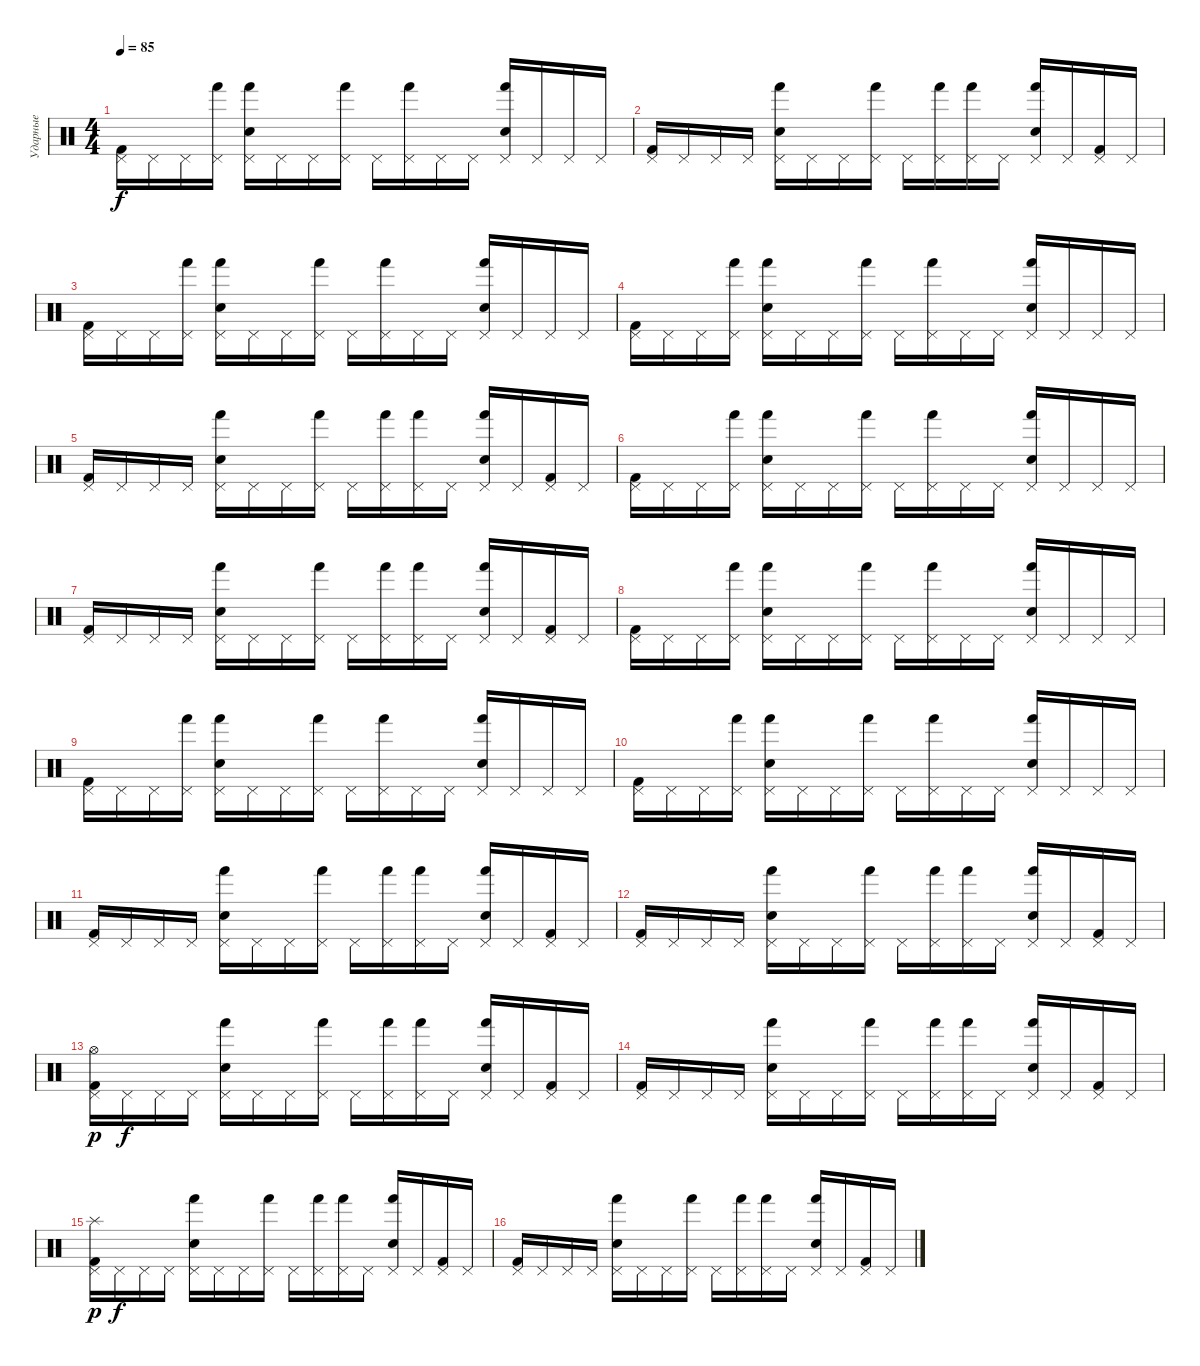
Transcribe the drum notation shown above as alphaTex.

\track ("Ударные" "Ударные") {instrument percussion}
\staff {score}
\articulation defaults
\ts (4 4)
\tempo 85
\clef neutral
\ks c
("Pedal Hi-Hat (hit)" "Kick (hit) 2").16{dy f} "Pedal Hi-Hat (hit)".16 "Pedal Hi-Hat (hit)".16 ("Pedal Hi-Hat (hit)" "Hand (hit)").16 ("Pedal Hi-Hat (hit)" "Electric Snare (hit)" "Hand (hit)").16 "Pedal Hi-Hat (hit)".16 "Pedal Hi-Hat (hit)".16 ("Pedal Hi-Hat (hit)" "Hand (hit)").16 "Pedal Hi-Hat (hit)".16 ("Pedal Hi-Hat (hit)" "Hand (hit)").16 "Pedal Hi-Hat (hit)".16 "Pedal Hi-Hat (hit)".16 ("Pedal Hi-Hat (hit)" "Electric Snare (hit)" "Hand (hit)").16 "Pedal Hi-Hat (hit)".16 "Pedal Hi-Hat (hit)".16 "Pedal Hi-Hat (hit)".16 |
("Pedal Hi-Hat (hit)" "Kick (hit) 2").16 "Pedal Hi-Hat (hit)".16 "Pedal Hi-Hat (hit)".16 "Pedal Hi-Hat (hit)".16 ("Pedal Hi-Hat (hit)" "Electric Snare (hit)" "Hand (hit)").16 "Pedal Hi-Hat (hit)".16 "Pedal Hi-Hat (hit)".16 ("Pedal Hi-Hat (hit)" "Hand (hit)").16 "Pedal Hi-Hat (hit)".16 ("Pedal Hi-Hat (hit)" "Hand (hit)").16 ("Pedal Hi-Hat (hit)" "Hand (hit)").16 "Pedal Hi-Hat (hit)".16 ("Pedal Hi-Hat (hit)" "Electric Snare (hit)" "Hand (hit)").16 "Pedal Hi-Hat (hit)".16 ("Pedal Hi-Hat (hit)" "Kick (hit) 2").16 "Pedal Hi-Hat (hit)".16 |
("Pedal Hi-Hat (hit)" "Kick (hit) 2").16 "Pedal Hi-Hat (hit)".16 "Pedal Hi-Hat (hit)".16 ("Pedal Hi-Hat (hit)" "Hand (hit)").16 ("Pedal Hi-Hat (hit)" "Electric Snare (hit)" "Hand (hit)").16 "Pedal Hi-Hat (hit)".16 "Pedal Hi-Hat (hit)".16 ("Pedal Hi-Hat (hit)" "Hand (hit)").16 "Pedal Hi-Hat (hit)".16 ("Pedal Hi-Hat (hit)" "Hand (hit)").16 "Pedal Hi-Hat (hit)".16 "Pedal Hi-Hat (hit)".16 ("Pedal Hi-Hat (hit)" "Electric Snare (hit)" "Hand (hit)").16 "Pedal Hi-Hat (hit)".16 "Pedal Hi-Hat (hit)".16 "Pedal Hi-Hat (hit)".16 |
("Pedal Hi-Hat (hit)" "Kick (hit) 2").16 "Pedal Hi-Hat (hit)".16 "Pedal Hi-Hat (hit)".16 ("Pedal Hi-Hat (hit)" "Hand (hit)").16 ("Pedal Hi-Hat (hit)" "Electric Snare (hit)" "Hand (hit)").16 "Pedal Hi-Hat (hit)".16 "Pedal Hi-Hat (hit)".16 ("Pedal Hi-Hat (hit)" "Hand (hit)").16 "Pedal Hi-Hat (hit)".16 ("Pedal Hi-Hat (hit)" "Hand (hit)").16 "Pedal Hi-Hat (hit)".16 "Pedal Hi-Hat (hit)".16 ("Pedal Hi-Hat (hit)" "Electric Snare (hit)" "Hand (hit)").16 "Pedal Hi-Hat (hit)".16 "Pedal Hi-Hat (hit)".16 "Pedal Hi-Hat (hit)".16 |
("Pedal Hi-Hat (hit)" "Kick (hit) 2").16 "Pedal Hi-Hat (hit)".16 "Pedal Hi-Hat (hit)".16 "Pedal Hi-Hat (hit)".16 ("Pedal Hi-Hat (hit)" "Electric Snare (hit)" "Hand (hit)").16 "Pedal Hi-Hat (hit)".16 "Pedal Hi-Hat (hit)".16 ("Pedal Hi-Hat (hit)" "Hand (hit)").16 "Pedal Hi-Hat (hit)".16 ("Pedal Hi-Hat (hit)" "Hand (hit)").16 ("Pedal Hi-Hat (hit)" "Hand (hit)").16 "Pedal Hi-Hat (hit)".16 ("Pedal Hi-Hat (hit)" "Electric Snare (hit)" "Hand (hit)").16 "Pedal Hi-Hat (hit)".16 ("Pedal Hi-Hat (hit)" "Kick (hit) 2").16 "Pedal Hi-Hat (hit)".16 |
("Pedal Hi-Hat (hit)" "Kick (hit) 2").16 "Pedal Hi-Hat (hit)".16 "Pedal Hi-Hat (hit)".16 ("Pedal Hi-Hat (hit)" "Hand (hit)").16 ("Pedal Hi-Hat (hit)" "Electric Snare (hit)" "Hand (hit)").16 "Pedal Hi-Hat (hit)".16 "Pedal Hi-Hat (hit)".16 ("Pedal Hi-Hat (hit)" "Hand (hit)").16 "Pedal Hi-Hat (hit)".16 ("Pedal Hi-Hat (hit)" "Hand (hit)").16 "Pedal Hi-Hat (hit)".16 "Pedal Hi-Hat (hit)".16 ("Pedal Hi-Hat (hit)" "Electric Snare (hit)" "Hand (hit)").16 "Pedal Hi-Hat (hit)".16 "Pedal Hi-Hat (hit)".16 "Pedal Hi-Hat (hit)".16 |
("Pedal Hi-Hat (hit)" "Kick (hit) 2").16 "Pedal Hi-Hat (hit)".16 "Pedal Hi-Hat (hit)".16 "Pedal Hi-Hat (hit)".16 ("Pedal Hi-Hat (hit)" "Electric Snare (hit)" "Hand (hit)").16 "Pedal Hi-Hat (hit)".16 "Pedal Hi-Hat (hit)".16 ("Pedal Hi-Hat (hit)" "Hand (hit)").16 "Pedal Hi-Hat (hit)".16 ("Pedal Hi-Hat (hit)" "Hand (hit)").16 ("Pedal Hi-Hat (hit)" "Hand (hit)").16 "Pedal Hi-Hat (hit)".16 ("Pedal Hi-Hat (hit)" "Electric Snare (hit)" "Hand (hit)").16 "Pedal Hi-Hat (hit)".16 ("Pedal Hi-Hat (hit)" "Kick (hit) 2").16 "Pedal Hi-Hat (hit)".16 |
("Pedal Hi-Hat (hit)" "Kick (hit) 2").16 "Pedal Hi-Hat (hit)".16 "Pedal Hi-Hat (hit)".16 ("Pedal Hi-Hat (hit)" "Hand (hit)").16 ("Pedal Hi-Hat (hit)" "Electric Snare (hit)" "Hand (hit)").16 "Pedal Hi-Hat (hit)".16 "Pedal Hi-Hat (hit)".16 ("Pedal Hi-Hat (hit)" "Hand (hit)").16 "Pedal Hi-Hat (hit)".16 ("Pedal Hi-Hat (hit)" "Hand (hit)").16 "Pedal Hi-Hat (hit)".16 "Pedal Hi-Hat (hit)".16 ("Pedal Hi-Hat (hit)" "Electric Snare (hit)" "Hand (hit)").16 "Pedal Hi-Hat (hit)".16 "Pedal Hi-Hat (hit)".16 "Pedal Hi-Hat (hit)".16 |
("Pedal Hi-Hat (hit)" "Kick (hit) 2").16 "Pedal Hi-Hat (hit)".16 "Pedal Hi-Hat (hit)".16 ("Pedal Hi-Hat (hit)" "Hand (hit)").16 ("Pedal Hi-Hat (hit)" "Electric Snare (hit)" "Hand (hit)").16 "Pedal Hi-Hat (hit)".16 "Pedal Hi-Hat (hit)".16 ("Pedal Hi-Hat (hit)" "Hand (hit)").16 "Pedal Hi-Hat (hit)".16 ("Pedal Hi-Hat (hit)" "Hand (hit)").16 "Pedal Hi-Hat (hit)".16 "Pedal Hi-Hat (hit)".16 ("Pedal Hi-Hat (hit)" "Electric Snare (hit)" "Hand (hit)").16 "Pedal Hi-Hat (hit)".16 "Pedal Hi-Hat (hit)".16 "Pedal Hi-Hat (hit)".16 |
("Pedal Hi-Hat (hit)" "Kick (hit) 2").16 "Pedal Hi-Hat (hit)".16 "Pedal Hi-Hat (hit)".16 ("Pedal Hi-Hat (hit)" "Hand (hit)").16 ("Pedal Hi-Hat (hit)" "Electric Snare (hit)" "Hand (hit)").16 "Pedal Hi-Hat (hit)".16 "Pedal Hi-Hat (hit)".16 ("Pedal Hi-Hat (hit)" "Hand (hit)").16 "Pedal Hi-Hat (hit)".16 ("Pedal Hi-Hat (hit)" "Hand (hit)").16 "Pedal Hi-Hat (hit)".16 "Pedal Hi-Hat (hit)".16 ("Pedal Hi-Hat (hit)" "Electric Snare (hit)" "Hand (hit)").16 "Pedal Hi-Hat (hit)".16 "Pedal Hi-Hat (hit)".16 "Pedal Hi-Hat (hit)".16 |
("Pedal Hi-Hat (hit)" "Kick (hit) 2").16 "Pedal Hi-Hat (hit)".16 "Pedal Hi-Hat (hit)".16 "Pedal Hi-Hat (hit)".16 ("Pedal Hi-Hat (hit)" "Electric Snare (hit)" "Hand (hit)").16 "Pedal Hi-Hat (hit)".16 "Pedal Hi-Hat (hit)".16 ("Pedal Hi-Hat (hit)" "Hand (hit)").16 "Pedal Hi-Hat (hit)".16 ("Pedal Hi-Hat (hit)" "Hand (hit)").16 ("Pedal Hi-Hat (hit)" "Hand (hit)").16 "Pedal Hi-Hat (hit)".16 ("Pedal Hi-Hat (hit)" "Electric Snare (hit)" "Hand (hit)").16 "Pedal Hi-Hat (hit)".16 ("Pedal Hi-Hat (hit)" "Kick (hit) 2").16 "Pedal Hi-Hat (hit)".16 |
("Pedal Hi-Hat (hit)" "Kick (hit) 2").16 "Pedal Hi-Hat (hit)".16 "Pedal Hi-Hat (hit)".16 "Pedal Hi-Hat (hit)".16 ("Pedal Hi-Hat (hit)" "Electric Snare (hit)" "Hand (hit)").16 "Pedal Hi-Hat (hit)".16 "Pedal Hi-Hat (hit)".16 ("Pedal Hi-Hat (hit)" "Hand (hit)").16 "Pedal Hi-Hat (hit)".16 ("Pedal Hi-Hat (hit)" "Hand (hit)").16 ("Pedal Hi-Hat (hit)" "Hand (hit)").16 "Pedal Hi-Hat (hit)".16 ("Pedal Hi-Hat (hit)" "Electric Snare (hit)" "Hand (hit)").16 "Pedal Hi-Hat (hit)".16 ("Pedal Hi-Hat (hit)" "Kick (hit) 2").16 "Pedal Hi-Hat (hit)".16 |
("Pedal Hi-Hat (hit)" "Kick (hit) 2" "Hi-Hat (open)").16{dy p} "Pedal Hi-Hat (hit)".16{dy f} "Pedal Hi-Hat (hit)".16 "Pedal Hi-Hat (hit)".16 ("Pedal Hi-Hat (hit)" "Electric Snare (hit)" "Hand (hit)").16 "Pedal Hi-Hat (hit)".16 "Pedal Hi-Hat (hit)".16 ("Pedal Hi-Hat (hit)" "Hand (hit)").16 "Pedal Hi-Hat (hit)".16 ("Pedal Hi-Hat (hit)" "Hand (hit)").16 ("Pedal Hi-Hat (hit)" "Hand (hit)").16 "Pedal Hi-Hat (hit)".16 ("Pedal Hi-Hat (hit)" "Electric Snare (hit)" "Hand (hit)").16 "Pedal Hi-Hat (hit)".16 ("Pedal Hi-Hat (hit)" "Kick (hit) 2").16 "Pedal Hi-Hat (hit)".16 |
("Pedal Hi-Hat (hit)" "Kick (hit) 2").16 "Pedal Hi-Hat (hit)".16 "Pedal Hi-Hat (hit)".16 "Pedal Hi-Hat (hit)".16 ("Pedal Hi-Hat (hit)" "Electric Snare (hit)" "Hand (hit)").16 "Pedal Hi-Hat (hit)".16 "Pedal Hi-Hat (hit)".16 ("Pedal Hi-Hat (hit)" "Hand (hit)").16 "Pedal Hi-Hat (hit)".16 ("Pedal Hi-Hat (hit)" "Hand (hit)").16 ("Pedal Hi-Hat (hit)" "Hand (hit)").16 "Pedal Hi-Hat (hit)".16 ("Pedal Hi-Hat (hit)" "Electric Snare (hit)" "Hand (hit)").16 "Pedal Hi-Hat (hit)".16 ("Pedal Hi-Hat (hit)" "Kick (hit) 2").16 "Pedal Hi-Hat (hit)".16 |
("Pedal Hi-Hat (hit)" "Kick (hit) 2" "Splash (hit)").16{dy p} "Pedal Hi-Hat (hit)".16{dy f} "Pedal Hi-Hat (hit)".16 "Pedal Hi-Hat (hit)".16 ("Pedal Hi-Hat (hit)" "Electric Snare (hit)" "Hand (hit)").16 "Pedal Hi-Hat (hit)".16 "Pedal Hi-Hat (hit)".16 ("Pedal Hi-Hat (hit)" "Hand (hit)").16 "Pedal Hi-Hat (hit)".16 ("Pedal Hi-Hat (hit)" "Hand (hit)").16 ("Pedal Hi-Hat (hit)" "Hand (hit)").16 "Pedal Hi-Hat (hit)".16 ("Pedal Hi-Hat (hit)" "Electric Snare (hit)" "Hand (hit)").16 "Pedal Hi-Hat (hit)".16 ("Pedal Hi-Hat (hit)" "Kick (hit) 2").16 "Pedal Hi-Hat (hit)".16 |
("Pedal Hi-Hat (hit)" "Kick (hit) 2").16 "Pedal Hi-Hat (hit)".16 "Pedal Hi-Hat (hit)".16 "Pedal Hi-Hat (hit)".16 ("Pedal Hi-Hat (hit)" "Electric Snare (hit)" "Hand (hit)").16 "Pedal Hi-Hat (hit)".16 "Pedal Hi-Hat (hit)".16 ("Pedal Hi-Hat (hit)" "Hand (hit)").16 "Pedal Hi-Hat (hit)".16 ("Pedal Hi-Hat (hit)" "Hand (hit)").16 ("Pedal Hi-Hat (hit)" "Hand (hit)").16 "Pedal Hi-Hat (hit)".16 ("Pedal Hi-Hat (hit)" "Electric Snare (hit)" "Hand (hit)").16 "Pedal Hi-Hat (hit)".16 ("Pedal Hi-Hat (hit)" "Kick (hit) 2").16 "Pedal Hi-Hat (hit)".16
